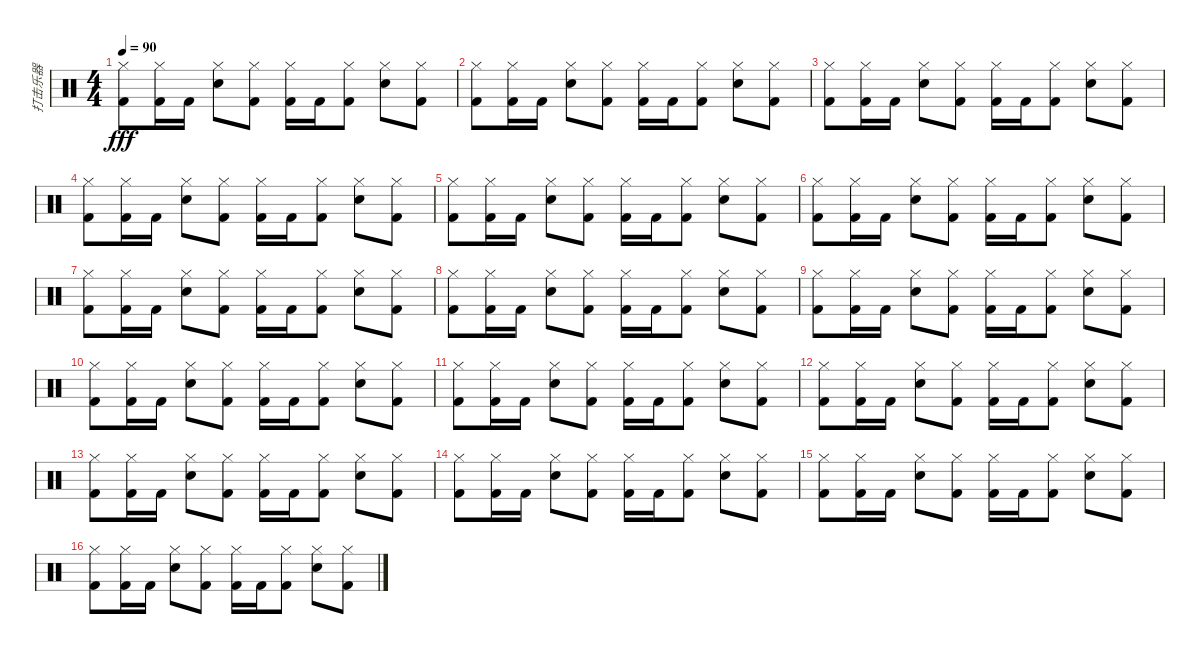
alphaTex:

\track ("打击乐器" "打击乐器") {instrument percussion}
\staff {score}
\articulation defaults
\ts (4 4)
\tempo 90
\clef neutral
\ks c
("Hi-Hat (closed)" "Kick (hit) 2").8{dy fff} ("Hi-Hat (closed)" "Kick (hit) 2").16 "Kick (hit) 2".16 ("Hi-Hat (closed)" "Electric Snare (hit)").8 ("Hi-Hat (closed)" "Kick (hit) 2").8 ("Hi-Hat (closed)" "Kick (hit) 2").16 "Kick (hit) 2".16 ("Hi-Hat (closed)" "Kick (hit) 2").8 ("Hi-Hat (closed)" "Electric Snare (hit)").8 ("Hi-Hat (closed)" "Kick (hit) 2").8 |
("Hi-Hat (closed)" "Kick (hit) 2").8 ("Hi-Hat (closed)" "Kick (hit) 2").16 "Kick (hit) 2".16 ("Hi-Hat (closed)" "Electric Snare (hit)").8 ("Hi-Hat (closed)" "Kick (hit) 2").8 ("Hi-Hat (closed)" "Kick (hit) 2").16 "Kick (hit) 2".16 ("Hi-Hat (closed)" "Kick (hit) 2").8 ("Hi-Hat (closed)" "Electric Snare (hit)").8 ("Hi-Hat (closed)" "Kick (hit) 2").8 |
("Hi-Hat (closed)" "Kick (hit) 2").8 ("Hi-Hat (closed)" "Kick (hit) 2").16 "Kick (hit) 2".16 ("Hi-Hat (closed)" "Electric Snare (hit)").8 ("Hi-Hat (closed)" "Kick (hit) 2").8 ("Hi-Hat (closed)" "Kick (hit) 2").16 "Kick (hit) 2".16 ("Hi-Hat (closed)" "Kick (hit) 2").8 ("Hi-Hat (closed)" "Electric Snare (hit)").8 ("Hi-Hat (closed)" "Kick (hit) 2").8 |
("Hi-Hat (closed)" "Kick (hit) 2").8 ("Hi-Hat (closed)" "Kick (hit) 2").16 "Kick (hit) 2".16 ("Hi-Hat (closed)" "Electric Snare (hit)").8 ("Hi-Hat (closed)" "Kick (hit) 2").8 ("Hi-Hat (closed)" "Kick (hit) 2").16 "Kick (hit) 2".16 ("Hi-Hat (closed)" "Kick (hit) 2").8 ("Hi-Hat (closed)" "Electric Snare (hit)").8 ("Hi-Hat (closed)" "Kick (hit) 2").8 |
("Hi-Hat (closed)" "Kick (hit) 2").8 ("Hi-Hat (closed)" "Kick (hit) 2").16 "Kick (hit) 2".16 ("Hi-Hat (closed)" "Electric Snare (hit)").8 ("Hi-Hat (closed)" "Kick (hit) 2").8 ("Hi-Hat (closed)" "Kick (hit) 2").16 "Kick (hit) 2".16 ("Hi-Hat (closed)" "Kick (hit) 2").8 ("Hi-Hat (closed)" "Electric Snare (hit)").8 ("Hi-Hat (closed)" "Kick (hit) 2").8 |
("Hi-Hat (closed)" "Kick (hit) 2").8 ("Hi-Hat (closed)" "Kick (hit) 2").16 "Kick (hit) 2".16 ("Hi-Hat (closed)" "Electric Snare (hit)").8 ("Hi-Hat (closed)" "Kick (hit) 2").8 ("Hi-Hat (closed)" "Kick (hit) 2").16 "Kick (hit) 2".16 ("Hi-Hat (closed)" "Kick (hit) 2").8 ("Hi-Hat (closed)" "Electric Snare (hit)").8 ("Hi-Hat (closed)" "Kick (hit) 2").8 |
("Hi-Hat (closed)" "Kick (hit) 2").8 ("Hi-Hat (closed)" "Kick (hit) 2").16 "Kick (hit) 2".16 ("Hi-Hat (closed)" "Electric Snare (hit)").8 ("Hi-Hat (closed)" "Kick (hit) 2").8 ("Hi-Hat (closed)" "Kick (hit) 2").16 "Kick (hit) 2".16 ("Hi-Hat (closed)" "Kick (hit) 2").8 ("Hi-Hat (closed)" "Electric Snare (hit)").8 ("Hi-Hat (closed)" "Kick (hit) 2").8 |
("Hi-Hat (closed)" "Kick (hit) 2").8 ("Hi-Hat (closed)" "Kick (hit) 2").16 "Kick (hit) 2".16 ("Hi-Hat (closed)" "Electric Snare (hit)").8 ("Hi-Hat (closed)" "Kick (hit) 2").8 ("Hi-Hat (closed)" "Kick (hit) 2").16 "Kick (hit) 2".16 ("Hi-Hat (closed)" "Kick (hit) 2").8 ("Hi-Hat (closed)" "Electric Snare (hit)").8 ("Hi-Hat (closed)" "Kick (hit) 2").8 |
("Hi-Hat (closed)" "Kick (hit) 2").8 ("Hi-Hat (closed)" "Kick (hit) 2").16 "Kick (hit) 2".16 ("Hi-Hat (closed)" "Electric Snare (hit)").8 ("Hi-Hat (closed)" "Kick (hit) 2").8 ("Hi-Hat (closed)" "Kick (hit) 2").16 "Kick (hit) 2".16 ("Hi-Hat (closed)" "Kick (hit) 2").8 ("Hi-Hat (closed)" "Electric Snare (hit)").8 ("Hi-Hat (closed)" "Kick (hit) 2").8 |
("Hi-Hat (closed)" "Kick (hit) 2").8 ("Hi-Hat (closed)" "Kick (hit) 2").16 "Kick (hit) 2".16 ("Hi-Hat (closed)" "Electric Snare (hit)").8 ("Hi-Hat (closed)" "Kick (hit) 2").8 ("Hi-Hat (closed)" "Kick (hit) 2").16 "Kick (hit) 2".16 ("Hi-Hat (closed)" "Kick (hit) 2").8 ("Hi-Hat (closed)" "Electric Snare (hit)").8 ("Hi-Hat (closed)" "Kick (hit) 2").8 |
("Hi-Hat (closed)" "Kick (hit) 2").8 ("Hi-Hat (closed)" "Kick (hit) 2").16 "Kick (hit) 2".16 ("Hi-Hat (closed)" "Electric Snare (hit)").8 ("Hi-Hat (closed)" "Kick (hit) 2").8 ("Hi-Hat (closed)" "Kick (hit) 2").16 "Kick (hit) 2".16 ("Hi-Hat (closed)" "Kick (hit) 2").8 ("Hi-Hat (closed)" "Electric Snare (hit)").8 ("Hi-Hat (closed)" "Kick (hit) 2").8 |
("Hi-Hat (closed)" "Kick (hit) 2").8 ("Hi-Hat (closed)" "Kick (hit) 2").16 "Kick (hit) 2".16 ("Hi-Hat (closed)" "Electric Snare (hit)").8 ("Hi-Hat (closed)" "Kick (hit) 2").8 ("Hi-Hat (closed)" "Kick (hit) 2").16 "Kick (hit) 2".16 ("Hi-Hat (closed)" "Kick (hit) 2").8 ("Hi-Hat (closed)" "Electric Snare (hit)").8 ("Hi-Hat (closed)" "Kick (hit) 2").8 |
("Hi-Hat (closed)" "Kick (hit) 2").8 ("Hi-Hat (closed)" "Kick (hit) 2").16 "Kick (hit) 2".16 ("Hi-Hat (closed)" "Electric Snare (hit)").8 ("Hi-Hat (closed)" "Kick (hit) 2").8 ("Hi-Hat (closed)" "Kick (hit) 2").16 "Kick (hit) 2".16 ("Hi-Hat (closed)" "Kick (hit) 2").8 ("Hi-Hat (closed)" "Electric Snare (hit)").8 ("Hi-Hat (closed)" "Kick (hit) 2").8 |
("Hi-Hat (closed)" "Kick (hit) 2").8 ("Hi-Hat (closed)" "Kick (hit) 2").16 "Kick (hit) 2".16 ("Hi-Hat (closed)" "Electric Snare (hit)").8 ("Hi-Hat (closed)" "Kick (hit) 2").8 ("Hi-Hat (closed)" "Kick (hit) 2").16 "Kick (hit) 2".16 ("Hi-Hat (closed)" "Kick (hit) 2").8 ("Hi-Hat (closed)" "Electric Snare (hit)").8 ("Hi-Hat (closed)" "Kick (hit) 2").8 |
("Hi-Hat (closed)" "Kick (hit) 2").8 ("Hi-Hat (closed)" "Kick (hit) 2").16 "Kick (hit) 2".16 ("Hi-Hat (closed)" "Electric Snare (hit)").8 ("Hi-Hat (closed)" "Kick (hit) 2").8 ("Hi-Hat (closed)" "Kick (hit) 2").16 "Kick (hit) 2".16 ("Hi-Hat (closed)" "Kick (hit) 2").8 ("Hi-Hat (closed)" "Electric Snare (hit)").8 ("Hi-Hat (closed)" "Kick (hit) 2").8 |
("Hi-Hat (closed)" "Kick (hit) 2").8 ("Hi-Hat (closed)" "Kick (hit) 2").16 "Kick (hit) 2".16 ("Hi-Hat (closed)" "Electric Snare (hit)").8 ("Hi-Hat (closed)" "Kick (hit) 2").8 ("Hi-Hat (closed)" "Kick (hit) 2").16 "Kick (hit) 2".16 ("Hi-Hat (closed)" "Kick (hit) 2").8 ("Hi-Hat (closed)" "Electric Snare (hit)").8 ("Hi-Hat (closed)" "Kick (hit) 2").8
